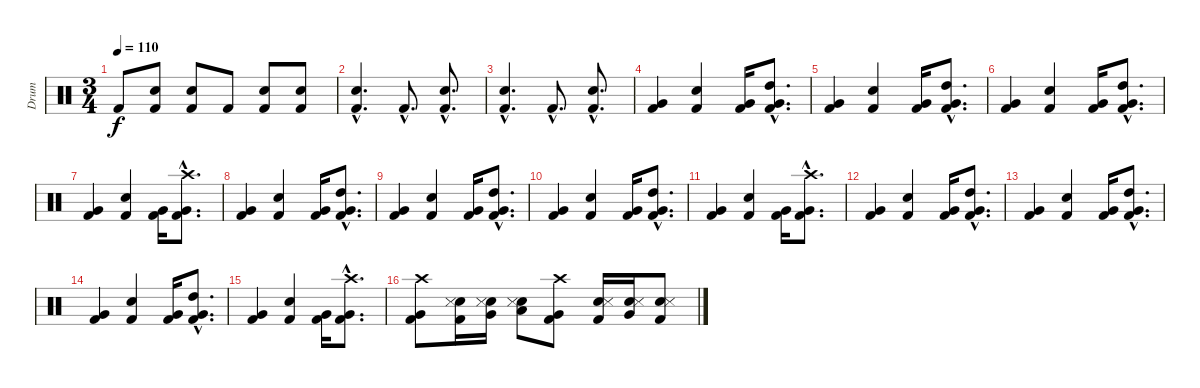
\track ("Drum" "Drum") {instrument percussion}
\staff {score}
\articulation defaults
\ts (3 4)
\tempo 110
\clef neutral
\ks c "Kick (hit) 2".8{dy f}
("Kick (hit) 2" "Electric Snare (hit)").8 ("Kick (hit) 2" "Electric Snare (hit)").8 "Kick (hit) 2".8 ("Kick (hit) 2" "Electric Snare (hit)").8 ("Kick (hit) 2" "Electric Snare (hit)").8 |
("Kick (hit) 2"{hac} "Electric Snare (hit)"{hac}).4{d} "Kick (hit) 2"{hac}.8{d} ("Kick (hit) 2"{hac} "Electric Snare (hit)"{hac}).8{d} |
("Kick (hit) 2"{hac} "Electric Snare (hit)"{hac}).4{d} "Kick (hit) 2"{hac}.8{d} ("Kick (hit) 2"{hac} "Electric Snare (hit)"{hac}).8{d} |
("Kick (hit) 2" "Very Low Tom (hit)").4 ("Kick (hit) 2" "Electric Snare (hit)").4 ("Kick (hit) 2" "Very Low Tom (hit)").16 ("High Tom (hit)"{hac} "Kick (hit) 2"{hac} "Very Low Tom (hit)"{hac}).8{d} |
("Kick (hit) 2" "Very Low Tom (hit)").4 ("Kick (hit) 2" "Electric Snare (hit)").4 ("Kick (hit) 2" "Very Low Tom (hit)").16 ("High Tom (hit)"{hac} "Kick (hit) 2"{hac} "Very Low Tom (hit)"{hac}).8{d} |
("Kick (hit) 2" "Very Low Tom (hit)").4 ("Kick (hit) 2" "Electric Snare (hit)").4 ("Kick (hit) 2" "Very Low Tom (hit)").16 ("High Tom (hit)"{hac} "Kick (hit) 2"{hac} "Very Low Tom (hit)"{hac}).8{d} |
("Kick (hit) 2" "Very Low Tom (hit)").4 ("Kick (hit) 2" "Electric Snare (hit)").4 ("Kick (hit) 2" "Very Low Tom (hit)").16 ("Crash high (hit)"{hac} "Kick (hit) 2"{hac} "Very Low Tom (hit)"{hac}).8{d} |
("Kick (hit) 2" "Very Low Tom (hit)").4 ("Kick (hit) 2" "Electric Snare (hit)").4 ("Kick (hit) 2" "Very Low Tom (hit)").16 ("High Tom (hit)"{hac} "Kick (hit) 2"{hac} "Very Low Tom (hit)"{hac}).8{d} |
("Kick (hit) 2" "Very Low Tom (hit)").4 ("Kick (hit) 2" "Electric Snare (hit)").4 ("Kick (hit) 2" "Very Low Tom (hit)").16 ("High Tom (hit)"{hac} "Kick (hit) 2"{hac} "Very Low Tom (hit)"{hac}).8{d} |
("Kick (hit) 2" "Very Low Tom (hit)").4 ("Kick (hit) 2" "Electric Snare (hit)").4 ("Kick (hit) 2" "Very Low Tom (hit)").16 ("High Tom (hit)"{hac} "Kick (hit) 2"{hac} "Very Low Tom (hit)"{hac}).8{d} |
("Kick (hit) 2" "Very Low Tom (hit)").4 ("Kick (hit) 2" "Electric Snare (hit)").4 ("Kick (hit) 2" "Very Low Tom (hit)").16 ("Crash high (hit)"{hac} "Kick (hit) 2"{hac} "Very Low Tom (hit)"{hac}).8{d} |
("Kick (hit) 2" "Very Low Tom (hit)").4 ("Kick (hit) 2" "Electric Snare (hit)").4 ("Kick (hit) 2" "Very Low Tom (hit)").16 ("High Tom (hit)"{hac} "Kick (hit) 2"{hac} "Very Low Tom (hit)"{hac}).8{d} |
("Kick (hit) 2" "Very Low Tom (hit)").4 ("Kick (hit) 2" "Electric Snare (hit)").4 ("Kick (hit) 2" "Very Low Tom (hit)").16 ("High Tom (hit)"{hac} "Kick (hit) 2"{hac} "Very Low Tom (hit)"{hac}).8{d} |
("Kick (hit) 2" "Very Low Tom (hit)").4 ("Kick (hit) 2" "Electric Snare (hit)").4 ("Kick (hit) 2" "Very Low Tom (hit)").16 ("High Tom (hit)"{hac} "Kick (hit) 2"{hac} "Very Low Tom (hit)"{hac}).8{d} |
("Kick (hit) 2" "Very Low Tom (hit)").4 ("Kick (hit) 2" "Electric Snare (hit)").4 ("Kick (hit) 2" "Very Low Tom (hit)").16 ("Crash high (hit)"{hac} "Kick (hit) 2"{hac} "Very Low Tom (hit)"{hac}).8{d} |
("Crash high (hit)" "Kick (hit) 2" "Very Low Tom (hit)").8 ("Electric Snare (hit)" "Snare (side stick) 3" "Kick (hit) 2").16 ("Electric Snare (hit)" "Snare (side stick) 3" "Very Low Tom (hit)").16 ("Electric Snare (hit)" "Snare (side stick) 3" "Low Floor Tom (hit)").8 ("Crash high (hit)" "Kick (hit) 2" "Very Low Tom (hit)").8 ("Electric Snare (hit)" "Snare (side stick) 3" "Kick (hit) 2").16 ("Electric Snare (hit)" "Snare (side stick) 3" "Very Low Tom (hit)").16 ("Electric Snare (hit)" "Snare (side stick) 3" "Kick (hit) 2").8
